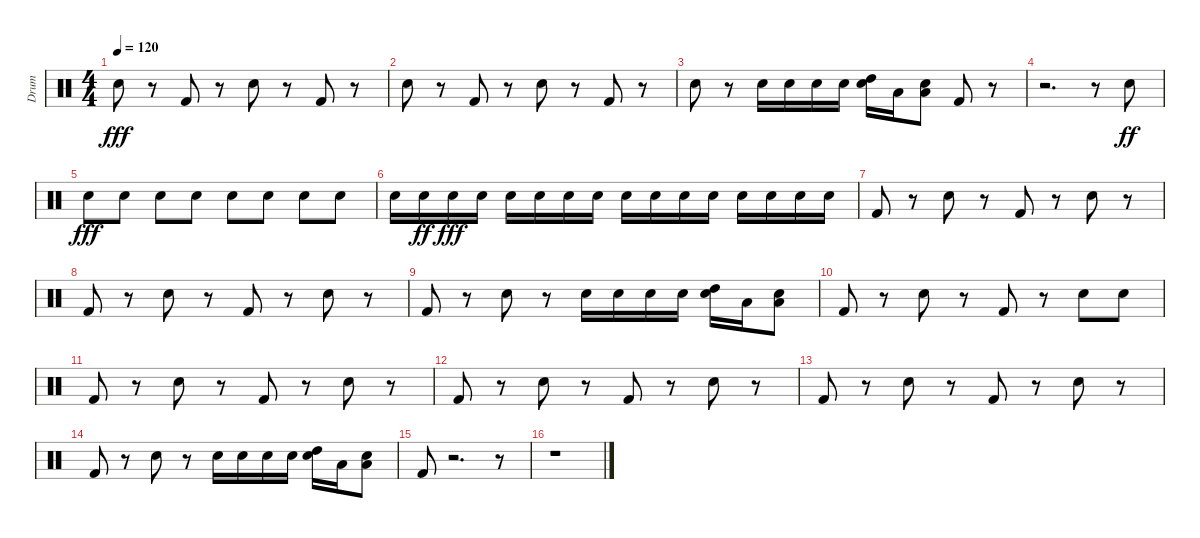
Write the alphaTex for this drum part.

\track ("Drum" "Drum") {instrument percussion}
\staff {score}
\articulation defaults
\ts (4 4)
\tempo 120
\clef neutral
\ks c "Snare (hit) 2".8{dy fff}
r.8 "Kick (hit) 2".8 r.8 "Snare (hit) 2".8 r.8 "Kick (hit) 2".8 r.8 |
"Snare (hit) 2".8 r.8 "Kick (hit) 2".8 r.8 "Snare (hit) 2".8 r.8 "Kick (hit) 2".8 r.8 |
"Snare (hit) 2".8 r.8 "Snare (hit) 2".16 "Snare (hit) 2".16 "Snare (hit) 2".16 "Snare (hit) 2".16 ("High Tom (hit)" "Snare (hit) 2").16 "Low Tom (hit)".16 ("Snare (hit) 2" "Low Floor Tom (hit)").8 "Kick (hit) 2".8 r.8 |
r.2{d} r.8 "Snare (hit) 2".8{dy ff} |
"Snare (hit) 2".8{dy fff} "Snare (hit) 2".8 "Snare (hit) 2".8 "Snare (hit) 2".8 "Snare (hit) 2".8 "Snare (hit) 2".8 "Snare (hit) 2".8 "Snare (hit) 2".8 |
"Snare (hit) 2".16 "Snare (hit) 2".16{dy ff} "Snare (hit) 2".16{dy fff} "Snare (hit) 2".16 "Snare (hit) 2".16 "Snare (hit) 2".16 "Snare (hit) 2".16 "Snare (hit) 2".16 "Snare (hit) 2".16 "Snare (hit) 2".16 "Snare (hit) 2".16 "Snare (hit) 2".16 "Snare (hit) 2".16 "Snare (hit) 2".16 "Snare (hit) 2".16 "Snare (hit) 2".16 |
"Kick (hit) 2".8 r.8 "Snare (hit) 2".8 r.8 "Kick (hit) 2".8 r.8 "Snare (hit) 2".8 r.8 |
"Kick (hit) 2".8 r.8 "Snare (hit) 2".8 r.8 "Kick (hit) 2".8 r.8 "Snare (hit) 2".8 r.8 |
"Kick (hit) 2".8 r.8 "Snare (hit) 2".8 r.8 "Snare (hit) 2".16 "Snare (hit) 2".16 "Snare (hit) 2".16 "Snare (hit) 2".16 ("High Tom (hit)" "Snare (hit) 2").16 "Low Tom (hit)".16 ("Snare (hit) 2" "Low Floor Tom (hit)").8 |
"Kick (hit) 2".8 r.8 "Snare (hit) 2".8 r.8 "Kick (hit) 2".8 r.8 "Snare (hit) 2".8 "Snare (hit) 2".8 |
"Kick (hit) 2".8 r.8 "Snare (hit) 2".8 r.8 "Kick (hit) 2".8 r.8 "Snare (hit) 2".8 r.8 |
"Kick (hit) 2".8 r.8 "Snare (hit) 2".8 r.8 "Kick (hit) 2".8 r.8 "Snare (hit) 2".8 r.8 |
"Kick (hit) 2".8 r.8 "Snare (hit) 2".8 r.8 "Kick (hit) 2".8 r.8 "Snare (hit) 2".8 r.8 |
"Kick (hit) 2".8 r.8 "Snare (hit) 2".8 r.8 "Snare (hit) 2".16 "Snare (hit) 2".16 "Snare (hit) 2".16 "Snare (hit) 2".16 ("High Tom (hit)" "Snare (hit) 2").16 "Low Tom (hit)".16 ("Low Floor Tom (hit)" "Snare (hit) 2").8 |
"Kick (hit) 2".8 r.2{d} r.8 |
r.1
